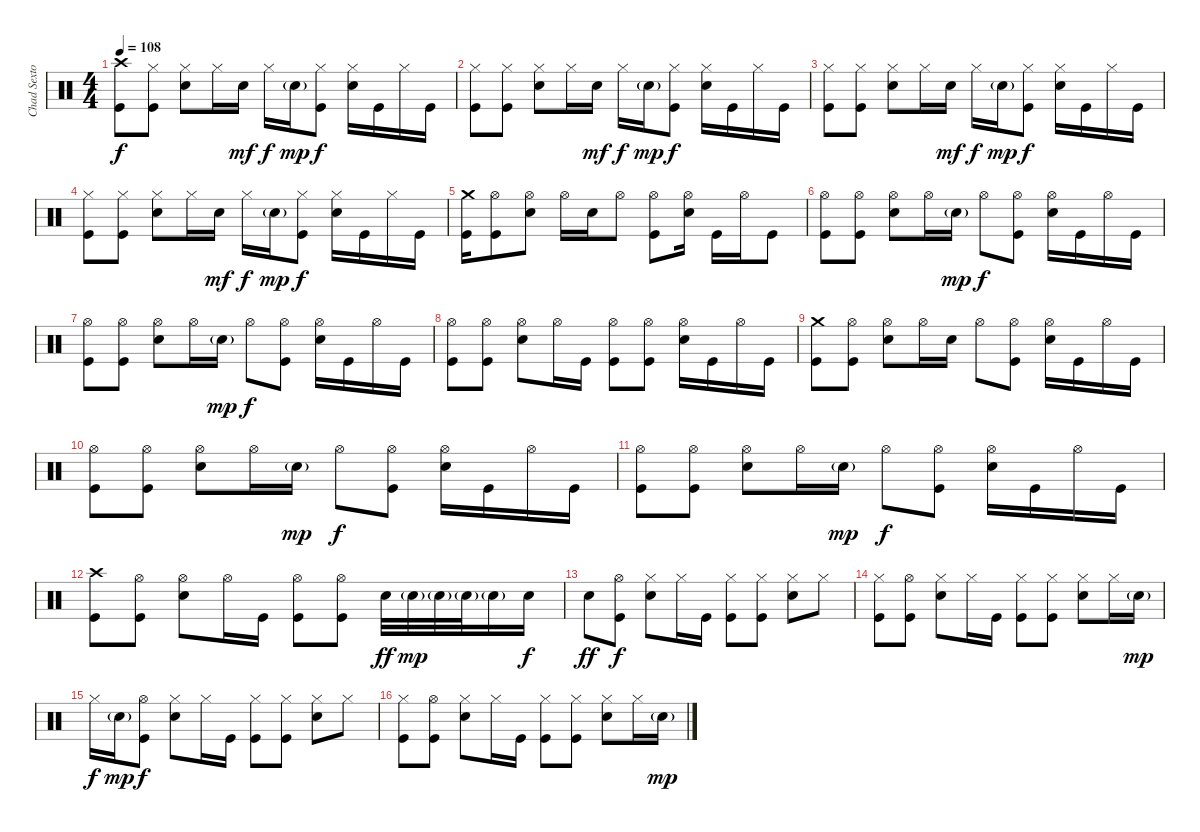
\track ("Chad Sexton Drums" "Chad Sexto") {instrument percussion}
\staff {score}
\articulation defaults
\ts (4 4)
\tempo 108
\clef neutral
\ks c
("Crash high (hit)" "Kick (hit)").8{dy f} ("Hi-Hat (closed)" "Kick (hit)").8 ("Hi-Hat (closed)" "Electric Snare (hit)").8 "Hi-Hat (closed)".16 "Electric Snare (hit)".16{dy mf} "Hi-Hat (closed)".16{dy f} "Electric Snare (hit)"{g}.16{dy mp} ("Hi-Hat (closed)" "Kick (hit)").8{dy f} ("Hi-Hat (closed)" "Electric Snare (hit)").16 "Kick (hit)".16 "Hi-Hat (closed)".16 "Kick (hit)".16 |
("Hi-Hat (closed)" "Kick (hit)").8 ("Hi-Hat (closed)" "Kick (hit)").8 ("Hi-Hat (closed)" "Electric Snare (hit)").8 "Hi-Hat (closed)".16 "Electric Snare (hit)".16{dy mf} "Hi-Hat (closed)".16{dy f} "Electric Snare (hit)"{g}.16{dy mp} ("Hi-Hat (closed)" "Kick (hit)").8{dy f} ("Hi-Hat (closed)" "Electric Snare (hit)").16 "Kick (hit)".16 "Hi-Hat (closed)".16 "Kick (hit)".16 |
("Hi-Hat (closed)" "Kick (hit)").8 ("Hi-Hat (closed)" "Kick (hit)").8 ("Hi-Hat (closed)" "Electric Snare (hit)").8 "Hi-Hat (closed)".16 "Electric Snare (hit)".16{dy mf} "Hi-Hat (closed)".16{dy f} "Electric Snare (hit)"{g}.16{dy mp} ("Hi-Hat (closed)" "Kick (hit)").8{dy f} ("Hi-Hat (closed)" "Electric Snare (hit)").16 "Kick (hit)".16 "Hi-Hat (closed)".16 "Kick (hit)".16 |
("Hi-Hat (closed)" "Kick (hit)").8 ("Hi-Hat (closed)" "Kick (hit)").8 ("Hi-Hat (closed)" "Electric Snare (hit)").8 "Hi-Hat (closed)".16 "Electric Snare (hit)".16{dy mf} "Hi-Hat (closed)".16{dy f} "Electric Snare (hit)"{g}.16{dy mp} ("Hi-Hat (closed)" "Kick (hit)").8{dy f} ("Hi-Hat (closed)" "Electric Snare (hit)").16 "Kick (hit)".16 "Hi-Hat (closed)".16 "Kick (hit)".16 |
("Crash medium (hit)" "Kick (hit)").16 ("Hi-Hat (open)" "Kick (hit)").8 ("Hi-Hat (open)" "Electric Snare (hit)").8 "Hi-Hat (open)".16 "Electric Snare (hit)".16 "Hi-Hat (open)".8 ("Hi-Hat (open)" "Kick (hit)").8 ("Hi-Hat (open)" "Electric Snare (hit)").16 "Kick (hit)".16 "Hi-Hat (open)".16 "Kick (hit)".8 |
("Hi-Hat (open)" "Kick (hit)").8 ("Hi-Hat (open)" "Kick (hit)").8 ("Hi-Hat (open)" "Electric Snare (hit)").8 "Hi-Hat (open)".16 "Electric Snare (hit)"{g}.16{dy mp} "Hi-Hat (open)".8{dy f} ("Hi-Hat (open)" "Kick (hit)").8 ("Hi-Hat (open)" "Electric Snare (hit)").16 "Kick (hit)".16 "Hi-Hat (open)".16 "Kick (hit)".16 |
("Hi-Hat (open)" "Kick (hit)").8 ("Hi-Hat (open)" "Kick (hit)").8 ("Hi-Hat (open)" "Electric Snare (hit)").8 "Hi-Hat (open)".16 "Electric Snare (hit)"{g}.16{dy mp} "Hi-Hat (open)".8{dy f} ("Hi-Hat (open)" "Kick (hit)").8 ("Hi-Hat (open)" "Electric Snare (hit)").16 "Kick (hit)".16 "Hi-Hat (open)".16 "Kick (hit)".16 |
("Hi-Hat (open)" "Kick (hit)").8 ("Hi-Hat (open)" "Kick (hit)").8 ("Hi-Hat (open)" "Electric Snare (hit)").8 "Hi-Hat (open)".16 "Kick (hit)".16 ("Hi-Hat (open)" "Kick (hit)").8 ("Hi-Hat (open)" "Kick (hit)").8 ("Hi-Hat (open)" "Electric Snare (hit)").16 "Kick (hit)".16 "Hi-Hat (open)".16 "Kick (hit)".16 |
("Crash medium (hit)" "Kick (hit)").8 ("Hi-Hat (open)" "Kick (hit)").8 ("Hi-Hat (open)" "Electric Snare (hit)").8 "Hi-Hat (open)".16 "Electric Snare (hit)".16 "Hi-Hat (open)".8 ("Hi-Hat (open)" "Kick (hit)").8 ("Hi-Hat (open)" "Electric Snare (hit)").16 "Kick (hit)".16 "Hi-Hat (open)".16 "Kick (hit)".16 |
("Hi-Hat (open)" "Kick (hit)").8 ("Hi-Hat (open)" "Kick (hit)").8 ("Hi-Hat (open)" "Electric Snare (hit)").8 "Hi-Hat (open)".16 "Electric Snare (hit)"{g}.16{dy mp} "Hi-Hat (open)".8{dy f} ("Hi-Hat (open)" "Kick (hit)").8 ("Hi-Hat (open)" "Electric Snare (hit)").16 "Kick (hit)".16 "Hi-Hat (open)".16 "Kick (hit)".16 |
("Hi-Hat (open)" "Kick (hit)").8 ("Hi-Hat (open)" "Kick (hit)").8 ("Hi-Hat (open)" "Electric Snare (hit)").8 "Hi-Hat (open)".16 "Electric Snare (hit)"{g}.16{dy mp} "Hi-Hat (open)".8{dy f} ("Hi-Hat (open)" "Kick (hit)").8 ("Hi-Hat (open)" "Electric Snare (hit)").16 "Kick (hit)".16 "Hi-Hat (open)".16 "Kick (hit)".16 |
("Crash high (hit)" "Kick (hit)").8 ("Hi-Hat (open)" "Kick (hit)").8 ("Hi-Hat (open)" "Electric Snare (hit)").8 "Hi-Hat (open)".16 "Kick (hit)".16 ("Hi-Hat (open)" "Kick (hit)").8 ("Hi-Hat (open)" "Kick (hit)").8 "Electric Snare (hit)".32{dy ff} "Electric Snare (hit)"{g}.32{dy mp} "Electric Snare (hit)"{g}.32 "Electric Snare (hit)"{g}.32 "Electric Snare (hit)"{g}.16 "Electric Snare (hit)".16{dy f} |
"Electric Snare (hit)".8{dy ff} ("Hi-Hat (open)" "Kick (hit)").8{dy f} ("Hi-Hat (closed)" "Electric Snare (hit)").8 "Hi-Hat (closed)".16 "Kick (hit)".16 ("Hi-Hat (closed)" "Kick (hit)").8 ("Hi-Hat (closed)" "Kick (hit)").8 ("Hi-Hat (closed)" "Electric Snare (hit)").8 "Hi-Hat (closed)".8 |
("Hi-Hat (closed)" "Kick (hit)").8 ("Hi-Hat (open)" "Kick (hit)").8 ("Hi-Hat (closed)" "Electric Snare (hit)").8 "Hi-Hat (closed)".16 "Kick (hit)".16 ("Hi-Hat (closed)" "Kick (hit)").8 ("Hi-Hat (closed)" "Kick (hit)").8 ("Hi-Hat (closed)" "Electric Snare (hit)").8 "Hi-Hat (closed)".16 "Electric Snare (hit)"{g}.16{dy mp} |
"Hi-Hat (closed)".16{dy f} "Electric Snare (hit)"{g}.16{dy mp} ("Hi-Hat (open)" "Kick (hit)").8{dy f} ("Hi-Hat (closed)" "Electric Snare (hit)").8 "Hi-Hat (closed)".16 "Kick (hit)".16 ("Hi-Hat (closed)" "Kick (hit)").8 ("Hi-Hat (closed)" "Kick (hit)").8 ("Hi-Hat (closed)" "Electric Snare (hit)").8 "Hi-Hat (closed)".8 |
("Hi-Hat (closed)" "Kick (hit)").8 ("Hi-Hat (open)" "Kick (hit)").8 ("Hi-Hat (closed)" "Electric Snare (hit)").8 "Hi-Hat (closed)".16 "Kick (hit)".16 ("Hi-Hat (closed)" "Kick (hit)").8 ("Hi-Hat (closed)" "Kick (hit)").8 ("Hi-Hat (closed)" "Electric Snare (hit)").8 "Hi-Hat (closed)".16 "Electric Snare (hit)"{g}.16{dy mp}
